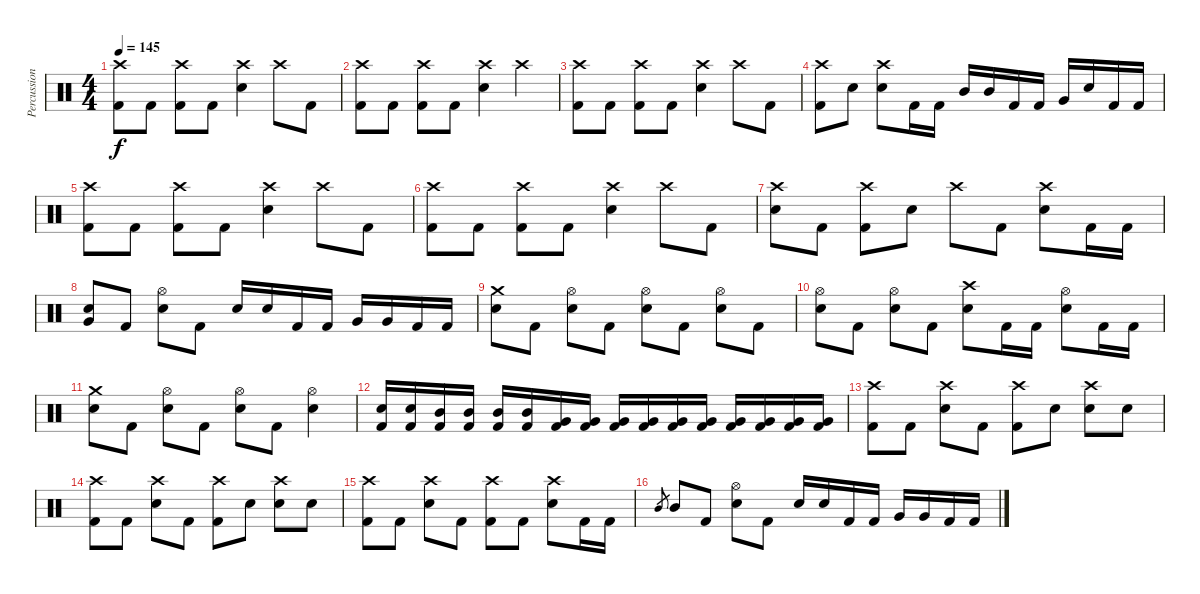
\track ("Percussion" "Percussion") {instrument percussion}
\staff {score}
\articulation defaults
\ts (4 4)
\tempo 145
\clef neutral
\ks c
("Crash high (hit)" "Kick (hit) 2").8{dy f} "Kick (hit) 2".8 ("Crash high (hit)" "Kick (hit) 2").8 "Kick (hit) 2".8 ("Crash high (hit)" "Snare (hit) 2").4 "Crash high (hit)".8 "Kick (hit) 2".8 |
("Crash high (hit)" "Kick (hit) 2").8 "Kick (hit) 2".8 ("Crash high (hit)" "Kick (hit) 2").8 "Kick (hit) 2".8 ("Crash high (hit)" "Snare (hit) 2").4 "Crash high (hit)".4 |
("Crash high (hit)" "Kick (hit) 2").8 "Kick (hit) 2".8 ("Crash high (hit)" "Kick (hit) 2").8 "Kick (hit) 2".8 ("Crash high (hit)" "Snare (hit) 2").4 "Crash high (hit)".8 "Kick (hit) 2".8 |
("Crash high (hit)" "Kick (hit) 2").8 "Snare (hit) 2".8 ("Crash high (hit)" "Snare (hit) 2").8 "Kick (hit) 2".16 "Kick (hit) 2".16 "Mid Tom (hit)".16 "Mid Tom (hit)".16 "Kick (hit) 2".16 "Kick (hit) 2".16 "Very Low Tom (hit)".16 "Snare (hit) 2".16 "Kick (hit) 2".16 "Kick (hit) 2".16 |
("Crash high (hit)" "Kick (hit) 2").8 "Kick (hit) 2".8 ("Crash high (hit)" "Kick (hit) 2").8 "Kick (hit) 2".8 ("Crash high (hit)" "Snare (hit) 2").4 "Crash high (hit)".8 "Kick (hit) 2".8 |
("Crash high (hit)" "Kick (hit) 2").8 "Kick (hit) 2".8 ("Crash high (hit)" "Kick (hit) 2").8 "Kick (hit) 2".8 ("Crash high (hit)" "Snare (hit) 2").4 "Crash high (hit)".8 "Kick (hit) 2".8 |
("Crash high (hit)" "Snare (hit) 2").8 "Kick (hit) 2".8 ("Crash high (hit)" "Kick (hit) 2").8 "Snare (hit) 2".8 "Crash high (hit)".8 "Kick (hit) 2".8 ("Crash high (hit)" "Snare (hit) 2").8 "Kick (hit) 2".16 "Kick (hit) 2".16 |
("Snare (hit) 2" "Very Low Tom (hit)").8 "Kick (hit) 2".8 ("Hi-Hat (open)" "Snare (hit) 2").8 "Kick (hit) 2".8 "Snare (hit) 2".16 "Snare (hit) 2".16 "Kick (hit) 2".16 "Kick (hit) 2".16 "Very Low Tom (hit)".16 "Very Low Tom (hit)".16 "Kick (hit) 2".16 "Kick (hit) 2".16 |
("Crash medium (hit)" "Snare (hit) 2").8 "Kick (hit) 2".8 ("Hi-Hat (open)" "Snare (hit) 2").8 "Kick (hit) 2".8 ("Hi-Hat (open)" "Snare (hit) 2").8 "Kick (hit) 2".8 ("Hi-Hat (open)" "Snare (hit) 2").8 "Kick (hit) 2".8 |
("Hi-Hat (open)" "Snare (hit) 2").8 "Kick (hit) 2".8 ("Hi-Hat (open)" "Snare (hit) 2").8 "Kick (hit) 2".8 ("Crash high (hit)" "Snare (hit) 2").8 "Kick (hit) 2".16 "Kick (hit) 2".16 ("Hi-Hat (open)" "Snare (hit) 2").8 "Kick (hit) 2".16 "Kick (hit) 2".16 |
("Crash medium (hit)" "Snare (hit) 2").8 "Kick (hit) 2".8 ("Hi-Hat (open)" "Snare (hit) 2").8 "Kick (hit) 2".8 ("Hi-Hat (open)" "Snare (hit) 2").8 "Kick (hit) 2".8 ("Hi-Hat (open)" "Snare (hit) 2").4 |
("Snare (hit) 2" "Kick (hit) 2").16 ("Snare (hit) 2" "Kick (hit) 2").16 ("Mid Tom (hit)" "Kick (hit) 2").16 ("Mid Tom (hit)" "Kick (hit) 2").16 ("Mid Tom (hit)" "Kick (hit) 2").16 ("Mid Tom (hit)" "Kick (hit) 2").16 ("Very Low Tom (hit)" "Kick (hit) 2").16 ("Very Low Tom (hit)" "Kick (hit) 2").16 ("Very Low Tom (hit)" "Kick (hit) 2").16 ("Very Low Tom (hit)" "Kick (hit) 2").16 ("Very Low Tom (hit)" "Kick (hit) 2").16 ("Very Low Tom (hit)" "Kick (hit) 2").16 ("Very Low Tom (hit)" "Kick (hit) 2").16 ("Very Low Tom (hit)" "Kick (hit) 2").16 ("Very Low Tom (hit)" "Kick (hit) 2").16 ("Very Low Tom (hit)" "Kick (hit) 2").16 |
("Crash high (hit)" "Kick (hit) 2").8 "Kick (hit) 2".8 ("Crash high (hit)" "Snare (hit) 2").8 "Kick (hit) 2".8 ("Crash high (hit)" "Kick (hit) 2").8 "Snare (hit) 2".8 ("Crash high (hit)" "Snare (hit) 2").8 "Snare (hit) 2".8 |
("Crash high (hit)" "Kick (hit) 2").8 "Kick (hit) 2".8 ("Crash high (hit)" "Snare (hit) 2").8 "Kick (hit) 2".8 ("Crash high (hit)" "Kick (hit) 2").8 "Snare (hit) 2".8 ("Crash high (hit)" "Snare (hit) 2").8 "Snare (hit) 2".8 |
("Crash high (hit)" "Kick (hit) 2").8 "Kick (hit) 2".8 ("Crash high (hit)" "Snare (hit) 2").8 "Kick (hit) 2".8 ("Crash high (hit)" "Kick (hit) 2").8 "Kick (hit) 2".8 ("Crash high (hit)" "Snare (hit) 2").8 "Kick (hit) 2".16 "Kick (hit) 2".16 |
"Mid Tom (hit)".8{gr} "Mid Tom (hit)".8 "Kick (hit) 2".8 ("Hi-Hat (open)" "Snare (hit) 2").8 "Kick (hit) 2".8 "Snare (hit) 2".16 "Snare (hit) 2".16 "Kick (hit) 2".16 "Kick (hit) 2".16 "Very Low Tom (hit)".16 "Very Low Tom (hit)".16 "Kick (hit) 2".16 "Kick (hit) 2".16
